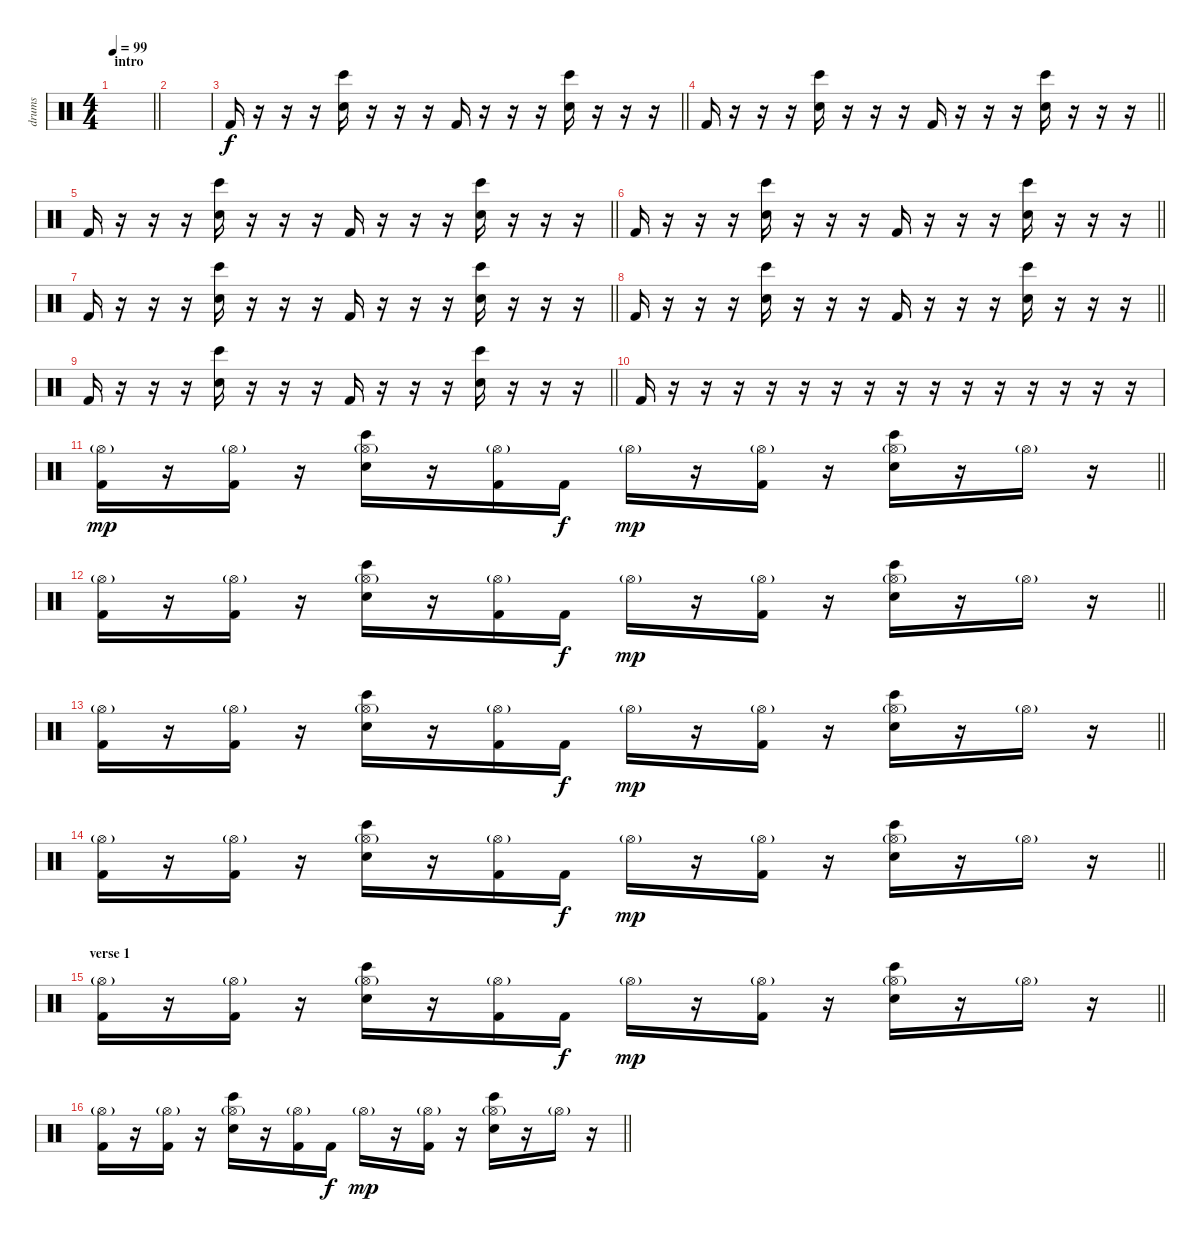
\track ("drums" "drums") {instrument percussion}
\staff {score}
\articulation defaults
\ts (4 4)
\section ("" "intro")
\tempo 99
\clef neutral
\barLineRight lightlight
\ks c
|
|
\barLineRight lightlight "Kick (hit) 2".16
r.16 r.16 r.16 ("Bongo High (hit)" "Hand Clap (hit)").16 r.16 r.16 r.16 "Kick (hit) 2".16 r.16 r.16 r.16 ("Bongo High (hit)" "Hand Clap (hit)").16 r.16 r.16 r.16 |
\barLineRight lightlight "Kick (hit) 2".16
r.16 r.16 r.16 ("Bongo High (hit)" "Hand Clap (hit)").16 r.16 r.16 r.16 "Kick (hit) 2".16 r.16 r.16 r.16 ("Bongo High (hit)" "Hand Clap (hit)").16 r.16 r.16 r.16 |
\barLineRight lightlight "Kick (hit) 2".16
r.16 r.16 r.16 ("Bongo High (hit)" "Hand Clap (hit)").16 r.16 r.16 r.16 "Kick (hit) 2".16 r.16 r.16 r.16 ("Bongo High (hit)" "Hand Clap (hit)").16 r.16 r.16 r.16 |
\barLineRight lightlight "Kick (hit) 2".16
r.16 r.16 r.16 ("Bongo High (hit)" "Hand Clap (hit)").16 r.16 r.16 r.16 "Kick (hit) 2".16 r.16 r.16 r.16 ("Bongo High (hit)" "Hand Clap (hit)").16 r.16 r.16 r.16 |
\barLineRight lightlight "Kick (hit) 2".16
r.16 r.16 r.16 ("Bongo High (hit)" "Hand Clap (hit)").16 r.16 r.16 r.16 "Kick (hit) 2".16 r.16 r.16 r.16 ("Bongo High (hit)" "Hand Clap (hit)").16 r.16 r.16 r.16 |
\barLineRight lightlight "Kick (hit) 2".16
r.16 r.16 r.16 ("Bongo High (hit)" "Hand Clap (hit)").16 r.16 r.16 r.16 "Kick (hit) 2".16 r.16 r.16 r.16 ("Bongo High (hit)" "Hand Clap (hit)").16 r.16 r.16 r.16 |
\barLineRight lightlight "Kick (hit) 2".16
r.16 r.16 r.16 ("Bongo High (hit)" "Hand Clap (hit)").16 r.16 r.16 r.16 "Kick (hit) 2".16 r.16 r.16 r.16 ("Bongo High (hit)" "Hand Clap (hit)").16 r.16 r.16 r.16 |
"Kick (hit) 2".16 r.16 r.16 r.16 r.16 r.16 r.16 r.16 r.16 r.16 r.16 r.16 r.16 r.16 r.16 r.16 |
\barLineRight lightlight
("Kick (hit) 2" "Hi-Hat (open)"{g}).16{dy mp} r.16 ("Kick (hit) 2" "Hi-Hat (open)"{g}).16 r.16 ("Bongo High (hit)" "Hand Clap (hit)" "Hi-Hat (open)"{g}).16 r.16 ("Kick (hit) 2" "Hi-Hat (open)"{g}).16 "Kick (hit) 2".16{dy f} "Hi-Hat (open)"{g}.16{dy mp} r.16 ("Kick (hit) 2" "Hi-Hat (open)"{g}).16 r.16 ("Bongo High (hit)" "Hand Clap (hit)" "Hi-Hat (open)"{g}).16 r.16 "Hi-Hat (open)"{g}.16 r.16 |
\barLineRight lightlight
("Kick (hit) 2" "Hi-Hat (open)"{g}).16 r.16 ("Kick (hit) 2" "Hi-Hat (open)"{g}).16 r.16 ("Bongo High (hit)" "Hand Clap (hit)" "Hi-Hat (open)"{g}).16 r.16 ("Kick (hit) 2" "Hi-Hat (open)"{g}).16 "Kick (hit) 2".16{dy f} "Hi-Hat (open)"{g}.16{dy mp} r.16 ("Kick (hit) 2" "Hi-Hat (open)"{g}).16 r.16 ("Bongo High (hit)" "Hand Clap (hit)" "Hi-Hat (open)"{g}).16 r.16 "Hi-Hat (open)"{g}.16 r.16 |
\barLineRight lightlight
("Kick (hit) 2" "Hi-Hat (open)"{g}).16 r.16 ("Kick (hit) 2" "Hi-Hat (open)"{g}).16 r.16 ("Bongo High (hit)" "Hand Clap (hit)" "Hi-Hat (open)"{g}).16 r.16 ("Kick (hit) 2" "Hi-Hat (open)"{g}).16 "Kick (hit) 2".16{dy f} "Hi-Hat (open)"{g}.16{dy mp} r.16 ("Kick (hit) 2" "Hi-Hat (open)"{g}).16 r.16 ("Bongo High (hit)" "Hand Clap (hit)" "Hi-Hat (open)"{g}).16 r.16 "Hi-Hat (open)"{g}.16 r.16 |
\barLineRight lightlight
("Kick (hit) 2" "Hi-Hat (open)"{g}).16 r.16 ("Kick (hit) 2" "Hi-Hat (open)"{g}).16 r.16 ("Bongo High (hit)" "Hand Clap (hit)" "Hi-Hat (open)"{g}).16 r.16 ("Kick (hit) 2" "Hi-Hat (open)"{g}).16 "Kick (hit) 2".16{dy f} "Hi-Hat (open)"{g}.16{dy mp} r.16 ("Kick (hit) 2" "Hi-Hat (open)"{g}).16 r.16 ("Bongo High (hit)" "Hand Clap (hit)" "Hi-Hat (open)"{g}).16 r.16 "Hi-Hat (open)"{g}.16 r.16 |
\section ("" "verse 1")
\barLineRight lightlight
("Kick (hit) 2" "Hi-Hat (open)"{g}).16 r.16 ("Kick (hit) 2" "Hi-Hat (open)"{g}).16 r.16 ("Bongo High (hit)" "Hand Clap (hit)" "Hi-Hat (open)"{g}).16 r.16 ("Kick (hit) 2" "Hi-Hat (open)"{g}).16 "Kick (hit) 2".16{dy f} "Hi-Hat (open)"{g}.16{dy mp} r.16 ("Kick (hit) 2" "Hi-Hat (open)"{g}).16 r.16 ("Bongo High (hit)" "Hand Clap (hit)" "Hi-Hat (open)"{g}).16 r.16 "Hi-Hat (open)"{g}.16 r.16 |
\barLineRight lightlight
("Kick (hit) 2" "Hi-Hat (open)"{g}).16 r.16 ("Kick (hit) 2" "Hi-Hat (open)"{g}).16 r.16 ("Bongo High (hit)" "Hand Clap (hit)" "Hi-Hat (open)"{g}).16 r.16 ("Kick (hit) 2" "Hi-Hat (open)"{g}).16 "Kick (hit) 2".16{dy f} "Hi-Hat (open)"{g}.16{dy mp} r.16 ("Kick (hit) 2" "Hi-Hat (open)"{g}).16 r.16 ("Bongo High (hit)" "Hand Clap (hit)" "Hi-Hat (open)"{g}).16 r.16 "Hi-Hat (open)"{g}.16 r.16
